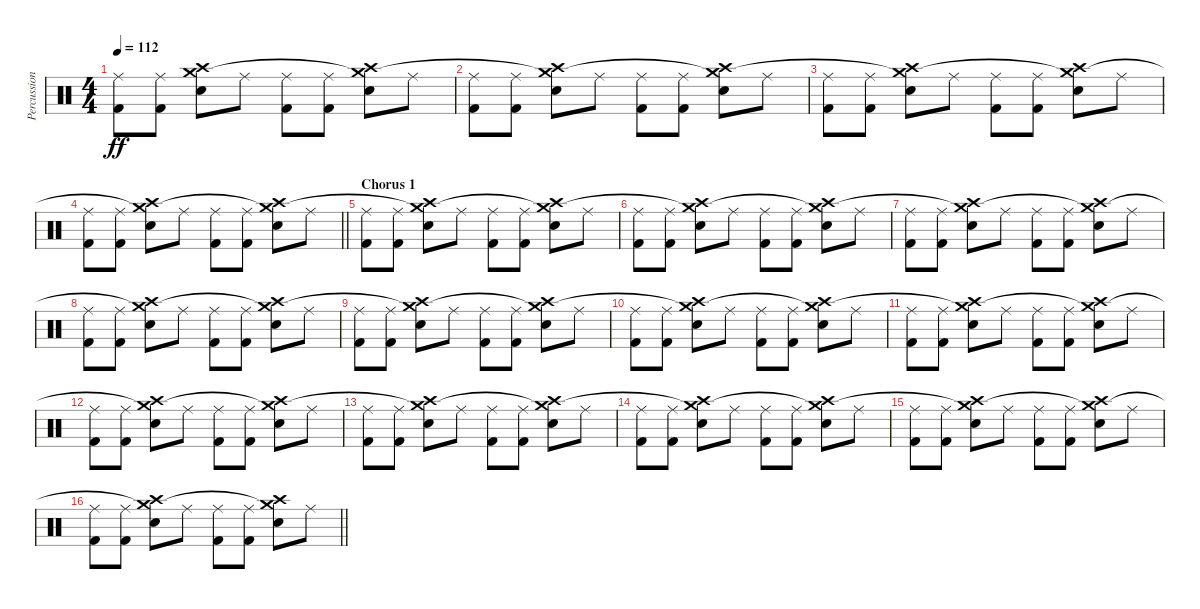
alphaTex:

\track ("Percussion" "Percussion") {instrument percussion}
\staff {score}
\articulation defaults
\ts (4 4)
\tempo 112
\clef neutral
\ks c
("Kick (hit) 2" "Ride (middle)").8{dy ff} ("Kick (hit) 2" "Ride (middle)").8 ("Crash high (hit)" "Electric Snare (hit)" "Crash medium (hit)"{t}).8 "Ride (middle)".8 ("Kick (hit) 2" "Ride (middle)").8 ("Kick (hit) 2" "Ride (middle)").8 ("Crash high (hit)" "Electric Snare (hit)" "Crash medium (hit)"{t}).8 "Ride (middle)".8 |
("Kick (hit) 2" "Ride (middle)").8 ("Kick (hit) 2" "Ride (middle)").8 ("Crash high (hit)" "Electric Snare (hit)" "Crash medium (hit)"{t}).8 "Ride (middle)".8 ("Kick (hit) 2" "Ride (middle)").8 ("Kick (hit) 2" "Ride (middle)").8 ("Crash high (hit)" "Electric Snare (hit)" "Crash medium (hit)"{t}).8 "Ride (middle)".8 |
("Kick (hit) 2" "Ride (middle)").8 ("Kick (hit) 2" "Ride (middle)").8 ("Crash high (hit)" "Electric Snare (hit)" "Crash medium (hit)"{t}).8 "Ride (middle)".8 ("Kick (hit) 2" "Ride (middle)").8 ("Kick (hit) 2" "Ride (middle)").8 ("Crash high (hit)" "Electric Snare (hit)" "Crash medium (hit)"{t}).8 "Ride (middle)".8 |
\barLineRight lightlight
("Kick (hit) 2" "Ride (middle)").8 ("Kick (hit) 2" "Ride (middle)").8 ("Crash high (hit)" "Electric Snare (hit)" "Crash medium (hit)"{t}).8 "Ride (middle)".8 ("Kick (hit) 2" "Ride (middle)").8 ("Kick (hit) 2" "Ride (middle)").8 ("Crash high (hit)" "Electric Snare (hit)" "Crash medium (hit)"{t}).8 "Ride (middle)".8 |
\section ("" "Chorus 1")
("Kick (hit) 2" "Ride (middle)").8 ("Kick (hit) 2" "Ride (middle)").8 ("Crash high (hit)" "Electric Snare (hit)" "Crash medium (hit)"{t}).8 "Ride (middle)".8 ("Kick (hit) 2" "Ride (middle)").8 ("Kick (hit) 2" "Ride (middle)").8 ("Crash high (hit)" "Electric Snare (hit)" "Crash medium (hit)"{t}).8 "Ride (middle)".8 |
("Kick (hit) 2" "Ride (middle)").8 ("Kick (hit) 2" "Ride (middle)").8 ("Crash high (hit)" "Electric Snare (hit)" "Crash medium (hit)"{t}).8 "Ride (middle)".8 ("Kick (hit) 2" "Ride (middle)").8 ("Kick (hit) 2" "Ride (middle)").8 ("Crash high (hit)" "Electric Snare (hit)" "Crash medium (hit)"{t}).8 "Ride (middle)".8 |
("Kick (hit) 2" "Ride (middle)").8 ("Kick (hit) 2" "Ride (middle)").8 ("Crash high (hit)" "Electric Snare (hit)" "Crash medium (hit)"{t}).8 "Ride (middle)".8 ("Kick (hit) 2" "Ride (middle)").8 ("Kick (hit) 2" "Ride (middle)").8 ("Crash high (hit)" "Electric Snare (hit)" "Crash medium (hit)"{t}).8 "Ride (middle)".8 |
("Kick (hit) 2" "Ride (middle)").8 ("Kick (hit) 2" "Ride (middle)").8 ("Crash high (hit)" "Electric Snare (hit)" "Crash medium (hit)"{t}).8 "Ride (middle)".8 ("Kick (hit) 2" "Ride (middle)").8 ("Kick (hit) 2" "Ride (middle)").8 ("Crash high (hit)" "Electric Snare (hit)" "Crash medium (hit)"{t}).8 "Ride (middle)".8 |
("Kick (hit) 2" "Ride (middle)").8 ("Kick (hit) 2" "Ride (middle)").8 ("Crash high (hit)" "Electric Snare (hit)" "Crash medium (hit)"{t}).8 "Ride (middle)".8 ("Kick (hit) 2" "Ride (middle)").8 ("Kick (hit) 2" "Ride (middle)").8 ("Crash high (hit)" "Electric Snare (hit)" "Crash medium (hit)"{t}).8 "Ride (middle)".8 |
("Kick (hit) 2" "Ride (middle)").8 ("Kick (hit) 2" "Ride (middle)").8 ("Crash high (hit)" "Electric Snare (hit)" "Crash medium (hit)"{t}).8 "Ride (middle)".8 ("Kick (hit) 2" "Ride (middle)").8 ("Kick (hit) 2" "Ride (middle)").8 ("Crash high (hit)" "Electric Snare (hit)" "Crash medium (hit)"{t}).8 "Ride (middle)".8 |
("Kick (hit) 2" "Ride (middle)").8 ("Kick (hit) 2" "Ride (middle)").8 ("Crash high (hit)" "Electric Snare (hit)" "Crash medium (hit)"{t}).8 "Ride (middle)".8 ("Kick (hit) 2" "Ride (middle)").8 ("Kick (hit) 2" "Ride (middle)").8 ("Crash high (hit)" "Electric Snare (hit)" "Crash medium (hit)"{t}).8 "Ride (middle)".8 |
("Kick (hit) 2" "Ride (middle)").8 ("Kick (hit) 2" "Ride (middle)").8 ("Crash high (hit)" "Electric Snare (hit)" "Crash medium (hit)"{t}).8 "Ride (middle)".8 ("Kick (hit) 2" "Ride (middle)").8 ("Kick (hit) 2" "Ride (middle)").8 ("Crash high (hit)" "Electric Snare (hit)" "Crash medium (hit)"{t}).8 "Ride (middle)".8 |
("Kick (hit) 2" "Ride (middle)").8 ("Kick (hit) 2" "Ride (middle)").8 ("Crash high (hit)" "Electric Snare (hit)" "Crash medium (hit)"{t}).8 "Ride (middle)".8 ("Kick (hit) 2" "Ride (middle)").8 ("Kick (hit) 2" "Ride (middle)").8 ("Crash high (hit)" "Electric Snare (hit)" "Crash medium (hit)"{t}).8 "Ride (middle)".8 |
("Kick (hit) 2" "Ride (middle)").8 ("Kick (hit) 2" "Ride (middle)").8 ("Crash high (hit)" "Electric Snare (hit)" "Crash medium (hit)"{t}).8 "Ride (middle)".8 ("Kick (hit) 2" "Ride (middle)").8 ("Kick (hit) 2" "Ride (middle)").8 ("Crash high (hit)" "Electric Snare (hit)" "Crash medium (hit)"{t}).8 "Ride (middle)".8 |
("Kick (hit) 2" "Ride (middle)").8 ("Kick (hit) 2" "Ride (middle)").8 ("Crash high (hit)" "Electric Snare (hit)" "Crash medium (hit)"{t}).8 "Ride (middle)".8 ("Kick (hit) 2" "Ride (middle)").8 ("Kick (hit) 2" "Ride (middle)").8 ("Crash high (hit)" "Electric Snare (hit)" "Crash medium (hit)"{t}).8 "Ride (middle)".8 |
\barLineRight lightlight
("Kick (hit) 2" "Ride (middle)").8 ("Kick (hit) 2" "Ride (middle)").8 ("Crash high (hit)" "Electric Snare (hit)" "Crash medium (hit)"{t}).8 "Ride (middle)".8 ("Kick (hit) 2" "Ride (middle)").8 ("Kick (hit) 2" "Ride (middle)").8 ("Crash high (hit)" "Electric Snare (hit)" "Crash medium (hit)"{t}).8 "Ride (middle)".8
